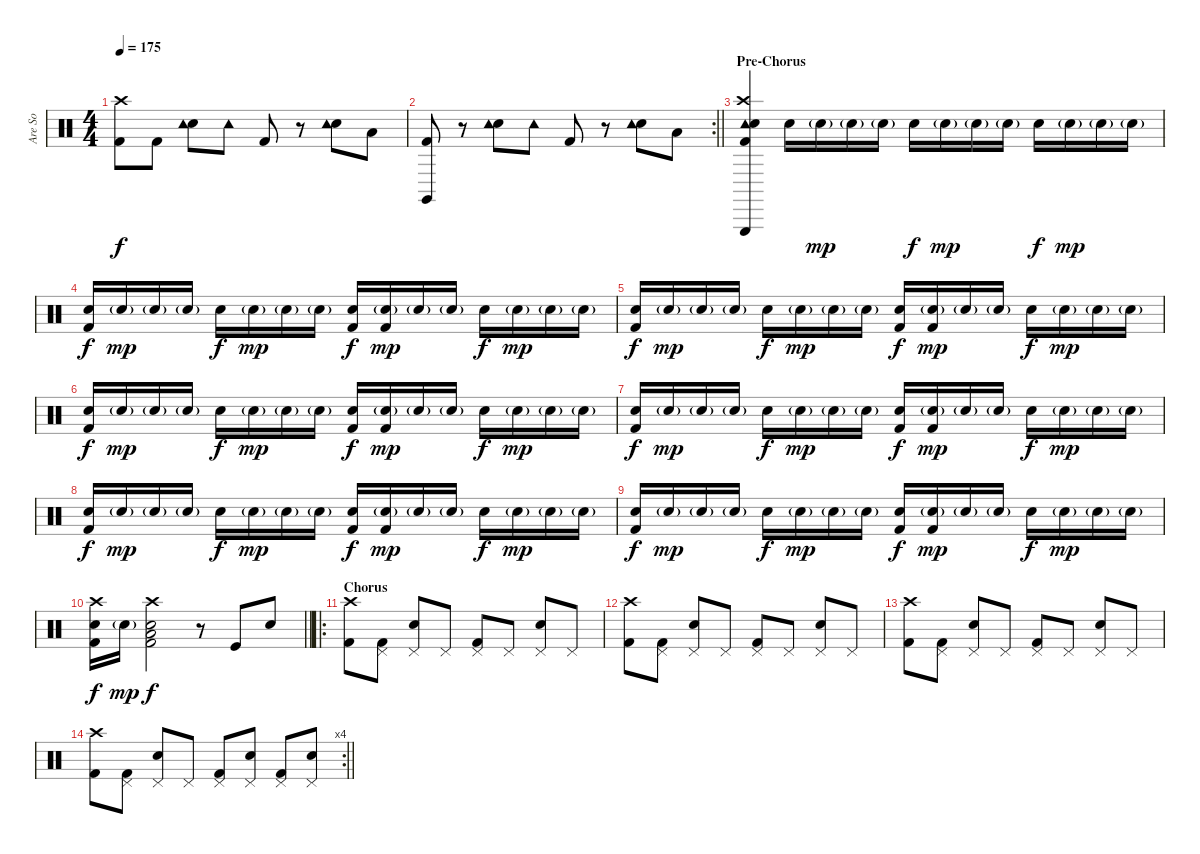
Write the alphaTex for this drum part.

\track ("Are So" "Are So") {instrument percussion}
\staff {score}
\articulation defaults
\ts (4 4)
\tempo 175
\clef neutral
\ks c
("Crash high (hit)" "Kick (hit) 2").8{dy f} "Kick (hit) 2".8 ("Snare (hit) 2" "Tambourine (hit)").8 "Tambourine (hit)".8 "Kick (hit) 2".8 r.8 ("Snare (hit) 2" "Tambourine (hit)").8 "Low Tom (hit)".8 |
\rc 2
\barLineRight lightlight
("Claves (hit)" "Kick (hit) 2").8 r.8 ("Snare (hit) 2" "Tambourine (hit)").8 "Tambourine (hit)".8 "Kick (hit) 2".8 r.8 ("Snare (hit) 2" "Tambourine (hit)").8 "Low Tom (hit)".8 |
\section ("" "Pre-Chorus")
("Tambourine (hit)" "Triangle (hit)" "Crash high (hit)" "Snare (hit) 2" "Kick (hit) 2").4 "Snare (hit) 2".16 "Snare (hit) 2"{g}.16{dy mp} "Snare (hit) 2"{g}.16 "Snare (hit) 2"{g}.16 "Snare (hit) 2".16{dy f} "Snare (hit) 2"{g}.16{dy mp} "Snare (hit) 2"{g}.16 "Snare (hit) 2"{g}.16 "Snare (hit) 2".16{dy f} "Snare (hit) 2"{g}.16{dy mp} "Snare (hit) 2"{g}.16 "Snare (hit) 2"{g}.16 |
("Snare (hit) 2" "Kick (hit) 2").16{dy f} "Snare (hit) 2"{g}.16{dy mp} "Snare (hit) 2"{g}.16 "Snare (hit) 2"{g}.16 "Snare (hit) 2".16{dy f} "Snare (hit) 2"{g}.16{dy mp} "Snare (hit) 2"{g}.16 "Snare (hit) 2"{g}.16 ("Snare (hit) 2" "Kick (hit) 2").16{dy f} ("Snare (hit) 2"{g} "Kick (hit) 2").16{dy mp} "Snare (hit) 2"{g}.16 "Snare (hit) 2"{g}.16 "Snare (hit) 2".16{dy f} "Snare (hit) 2"{g}.16{dy mp} "Snare (hit) 2"{g}.16 "Snare (hit) 2"{g}.16 |
("Snare (hit) 2" "Kick (hit) 2").16{dy f} "Snare (hit) 2"{g}.16{dy mp} "Snare (hit) 2"{g}.16 "Snare (hit) 2"{g}.16 "Snare (hit) 2".16{dy f} "Snare (hit) 2"{g}.16{dy mp} "Snare (hit) 2"{g}.16 "Snare (hit) 2"{g}.16 ("Snare (hit) 2" "Kick (hit) 2").16{dy f} ("Snare (hit) 2"{g} "Kick (hit) 2").16{dy mp} "Snare (hit) 2"{g}.16 "Snare (hit) 2"{g}.16 "Snare (hit) 2".16{dy f} "Snare (hit) 2"{g}.16{dy mp} "Snare (hit) 2"{g}.16 "Snare (hit) 2"{g}.16 |
("Snare (hit) 2" "Kick (hit) 2").16{dy f} "Snare (hit) 2"{g}.16{dy mp} "Snare (hit) 2"{g}.16 "Snare (hit) 2"{g}.16 "Snare (hit) 2".16{dy f} "Snare (hit) 2"{g}.16{dy mp} "Snare (hit) 2"{g}.16 "Snare (hit) 2"{g}.16 ("Snare (hit) 2" "Kick (hit) 2").16{dy f} ("Snare (hit) 2"{g} "Kick (hit) 2").16{dy mp} "Snare (hit) 2"{g}.16 "Snare (hit) 2"{g}.16 "Snare (hit) 2".16{dy f} "Snare (hit) 2"{g}.16{dy mp} "Snare (hit) 2"{g}.16 "Snare (hit) 2"{g}.16 |
("Snare (hit) 2" "Kick (hit) 2").16{dy f} "Snare (hit) 2"{g}.16{dy mp} "Snare (hit) 2"{g}.16 "Snare (hit) 2"{g}.16 "Snare (hit) 2".16{dy f} "Snare (hit) 2"{g}.16{dy mp} "Snare (hit) 2"{g}.16 "Snare (hit) 2"{g}.16 ("Snare (hit) 2" "Kick (hit) 2").16{dy f} ("Snare (hit) 2"{g} "Kick (hit) 2").16{dy mp} "Snare (hit) 2"{g}.16 "Snare (hit) 2"{g}.16 "Snare (hit) 2".16{dy f} "Snare (hit) 2"{g}.16{dy mp} "Snare (hit) 2"{g}.16 "Snare (hit) 2"{g}.16 |
("Snare (hit) 2" "Kick (hit) 2").16{dy f} "Snare (hit) 2"{g}.16{dy mp} "Snare (hit) 2"{g}.16 "Snare (hit) 2"{g}.16 "Snare (hit) 2".16{dy f} "Snare (hit) 2"{g}.16{dy mp} "Snare (hit) 2"{g}.16 "Snare (hit) 2"{g}.16 ("Snare (hit) 2" "Kick (hit) 2").16{dy f} ("Snare (hit) 2"{g} "Kick (hit) 2").16{dy mp} "Snare (hit) 2"{g}.16 "Snare (hit) 2"{g}.16 "Snare (hit) 2".16{dy f} "Snare (hit) 2"{g}.16{dy mp} "Snare (hit) 2"{g}.16 "Snare (hit) 2"{g}.16 |
("Snare (hit) 2" "Kick (hit) 2").16{dy f} "Snare (hit) 2"{g}.16{dy mp} "Snare (hit) 2"{g}.16 "Snare (hit) 2"{g}.16 "Snare (hit) 2".16{dy f} "Snare (hit) 2"{g}.16{dy mp} "Snare (hit) 2"{g}.16 "Snare (hit) 2"{g}.16 ("Snare (hit) 2" "Kick (hit) 2").16{dy f} ("Snare (hit) 2"{g} "Kick (hit) 2").16{dy mp} "Snare (hit) 2"{g}.16 "Snare (hit) 2"{g}.16 "Snare (hit) 2".16{dy f} "Snare (hit) 2"{g}.16{dy mp} "Snare (hit) 2"{g}.16 "Snare (hit) 2"{g}.16 |
\barLineRight lightlight
("Crash high (hit)" "Snare (hit) 2" "Kick (hit) 2").16{dy f} "Snare (hit) 2"{g}.16{dy mp} ("Crash high (hit)" "Low Tom (hit)" "Snare (hit) 2" "Kick (hit) 2").2{dy f} r.8 "Kick (hit)".8 "Snare (hit) 2".8 |
\ro
\section ("" "Chorus")
("Crash high (hit)" "Kick (hit) 2").8 ("Pedal Hi-Hat (hit)" "Kick (hit) 2").8 ("Pedal Hi-Hat (hit)" "Snare (hit) 2").8 "Pedal Hi-Hat (hit)".8 ("Pedal Hi-Hat (hit)" "Kick (hit) 2").8 "Pedal Hi-Hat (hit)".8 ("Pedal Hi-Hat (hit)" "Snare (hit) 2").8 "Pedal Hi-Hat (hit)".8 |
("Crash high (hit)" "Kick (hit) 2").8 ("Pedal Hi-Hat (hit)" "Kick (hit) 2").8 ("Pedal Hi-Hat (hit)" "Snare (hit) 2").8 "Pedal Hi-Hat (hit)".8 ("Pedal Hi-Hat (hit)" "Kick (hit) 2").8 "Pedal Hi-Hat (hit)".8 ("Pedal Hi-Hat (hit)" "Snare (hit) 2").8 "Pedal Hi-Hat (hit)".8 |
("Crash high (hit)" "Kick (hit) 2").8 ("Pedal Hi-Hat (hit)" "Kick (hit) 2").8 ("Pedal Hi-Hat (hit)" "Snare (hit) 2").8 "Pedal Hi-Hat (hit)".8 ("Pedal Hi-Hat (hit)" "Kick (hit) 2").8 "Pedal Hi-Hat (hit)".8 ("Pedal Hi-Hat (hit)" "Snare (hit) 2").8 "Pedal Hi-Hat (hit)".8 |
\rc 4
\barLineRight lightlight
("Crash high (hit)" "Kick (hit) 2").8 ("Pedal Hi-Hat (hit)" "Kick (hit) 2").8 ("Pedal Hi-Hat (hit)" "Snare (hit) 2").8 "Pedal Hi-Hat (hit)".8 ("Pedal Hi-Hat (hit)" "Kick (hit) 2").8 ("Pedal Hi-Hat (hit)" "Snare (hit) 2").8 ("Pedal Hi-Hat (hit)" "Kick (hit) 2").8 ("Pedal Hi-Hat (hit)" "Snare (hit) 2").8
